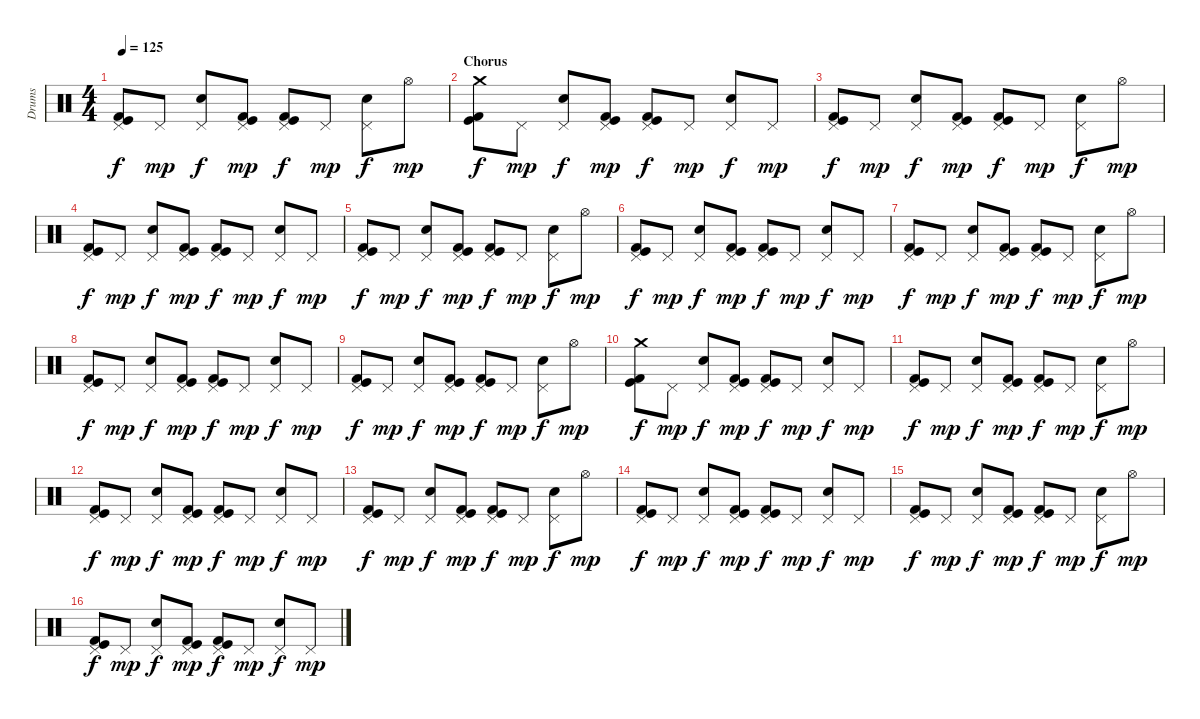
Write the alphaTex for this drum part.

\track ("Drums" "Drums") {instrument percussion}
\staff {score}
\articulation defaults
\ts (4 4)
\tempo 125
\clef neutral
\ks c
("Pedal Hi-Hat (hit)" "Kick (hit) 2" "Kick (hit)").8{dy f} "Pedal Hi-Hat (hit)".8{dy mp} ("Pedal Hi-Hat (hit)" "Electric Snare (hit)").8{dy f} ("Pedal Hi-Hat (hit)" "Kick (hit) 2" "Kick (hit)").8{dy mp} ("Pedal Hi-Hat (hit)" "Kick (hit) 2" "Kick (hit)").8{dy f} "Pedal Hi-Hat (hit)".8{dy mp} ("Pedal Hi-Hat (hit)" "Electric Snare (hit)").8{dy f} "Hi-Hat (open)".8{dy mp} |
\section ("" "Chorus")
("Crash medium (hit)" "Kick (hit) 2" "Kick (hit)").8{dy f} "Pedal Hi-Hat (hit)".8{dy mp} ("Pedal Hi-Hat (hit)" "Electric Snare (hit)").8{dy f} ("Pedal Hi-Hat (hit)" "Kick (hit) 2" "Kick (hit)").8{dy mp} ("Pedal Hi-Hat (hit)" "Kick (hit) 2" "Kick (hit)").8{dy f} "Pedal Hi-Hat (hit)".8{dy mp} ("Pedal Hi-Hat (hit)" "Electric Snare (hit)").8{dy f} "Pedal Hi-Hat (hit)".8{dy mp} |
("Pedal Hi-Hat (hit)" "Kick (hit) 2" "Kick (hit)").8{dy f} "Pedal Hi-Hat (hit)".8{dy mp} ("Pedal Hi-Hat (hit)" "Electric Snare (hit)").8{dy f} ("Pedal Hi-Hat (hit)" "Kick (hit) 2" "Kick (hit)").8{dy mp} ("Pedal Hi-Hat (hit)" "Kick (hit) 2" "Kick (hit)").8{dy f} "Pedal Hi-Hat (hit)".8{dy mp} ("Pedal Hi-Hat (hit)" "Electric Snare (hit)").8{dy f} "Hi-Hat (open)".8{dy mp} |
("Pedal Hi-Hat (hit)" "Kick (hit) 2" "Kick (hit)").8{dy f} "Pedal Hi-Hat (hit)".8{dy mp} ("Pedal Hi-Hat (hit)" "Electric Snare (hit)").8{dy f} ("Pedal Hi-Hat (hit)" "Kick (hit) 2" "Kick (hit)").8{dy mp} ("Pedal Hi-Hat (hit)" "Kick (hit) 2" "Kick (hit)").8{dy f} "Pedal Hi-Hat (hit)".8{dy mp} ("Pedal Hi-Hat (hit)" "Electric Snare (hit)").8{dy f} "Pedal Hi-Hat (hit)".8{dy mp} |
("Pedal Hi-Hat (hit)" "Kick (hit) 2" "Kick (hit)").8{dy f} "Pedal Hi-Hat (hit)".8{dy mp} ("Pedal Hi-Hat (hit)" "Electric Snare (hit)").8{dy f} ("Pedal Hi-Hat (hit)" "Kick (hit) 2" "Kick (hit)").8{dy mp} ("Pedal Hi-Hat (hit)" "Kick (hit) 2" "Kick (hit)").8{dy f} "Pedal Hi-Hat (hit)".8{dy mp} ("Pedal Hi-Hat (hit)" "Electric Snare (hit)").8{dy f} "Hi-Hat (open)".8{dy mp} |
("Pedal Hi-Hat (hit)" "Kick (hit) 2" "Kick (hit)").8{dy f} "Pedal Hi-Hat (hit)".8{dy mp} ("Pedal Hi-Hat (hit)" "Electric Snare (hit)").8{dy f} ("Pedal Hi-Hat (hit)" "Kick (hit) 2" "Kick (hit)").8{dy mp} ("Pedal Hi-Hat (hit)" "Kick (hit) 2" "Kick (hit)").8{dy f} "Pedal Hi-Hat (hit)".8{dy mp} ("Pedal Hi-Hat (hit)" "Electric Snare (hit)").8{dy f} "Pedal Hi-Hat (hit)".8{dy mp} |
("Pedal Hi-Hat (hit)" "Kick (hit) 2" "Kick (hit)").8{dy f} "Pedal Hi-Hat (hit)".8{dy mp} ("Pedal Hi-Hat (hit)" "Electric Snare (hit)").8{dy f} ("Pedal Hi-Hat (hit)" "Kick (hit) 2" "Kick (hit)").8{dy mp} ("Pedal Hi-Hat (hit)" "Kick (hit) 2" "Kick (hit)").8{dy f} "Pedal Hi-Hat (hit)".8{dy mp} ("Pedal Hi-Hat (hit)" "Electric Snare (hit)").8{dy f} "Hi-Hat (open)".8{dy mp} |
("Pedal Hi-Hat (hit)" "Kick (hit) 2" "Kick (hit)").8{dy f} "Pedal Hi-Hat (hit)".8{dy mp} ("Pedal Hi-Hat (hit)" "Electric Snare (hit)").8{dy f} ("Pedal Hi-Hat (hit)" "Kick (hit) 2" "Kick (hit)").8{dy mp} ("Pedal Hi-Hat (hit)" "Kick (hit) 2" "Kick (hit)").8{dy f} "Pedal Hi-Hat (hit)".8{dy mp} ("Pedal Hi-Hat (hit)" "Electric Snare (hit)").8{dy f} "Pedal Hi-Hat (hit)".8{dy mp} |
("Pedal Hi-Hat (hit)" "Kick (hit) 2" "Kick (hit)").8{dy f} "Pedal Hi-Hat (hit)".8{dy mp} ("Pedal Hi-Hat (hit)" "Electric Snare (hit)").8{dy f} ("Pedal Hi-Hat (hit)" "Kick (hit) 2" "Kick (hit)").8{dy mp} ("Pedal Hi-Hat (hit)" "Kick (hit) 2" "Kick (hit)").8{dy f} "Pedal Hi-Hat (hit)".8{dy mp} ("Pedal Hi-Hat (hit)" "Electric Snare (hit)").8{dy f} "Hi-Hat (open)".8{dy mp} |
("Crash medium (hit)" "Kick (hit) 2" "Kick (hit)").8{dy f} "Pedal Hi-Hat (hit)".8{dy mp} ("Pedal Hi-Hat (hit)" "Electric Snare (hit)").8{dy f} ("Pedal Hi-Hat (hit)" "Kick (hit) 2" "Kick (hit)").8{dy mp} ("Pedal Hi-Hat (hit)" "Kick (hit) 2" "Kick (hit)").8{dy f} "Pedal Hi-Hat (hit)".8{dy mp} ("Pedal Hi-Hat (hit)" "Electric Snare (hit)").8{dy f} "Pedal Hi-Hat (hit)".8{dy mp} |
("Pedal Hi-Hat (hit)" "Kick (hit) 2" "Kick (hit)").8{dy f} "Pedal Hi-Hat (hit)".8{dy mp} ("Pedal Hi-Hat (hit)" "Electric Snare (hit)").8{dy f} ("Pedal Hi-Hat (hit)" "Kick (hit) 2" "Kick (hit)").8{dy mp} ("Pedal Hi-Hat (hit)" "Kick (hit) 2" "Kick (hit)").8{dy f} "Pedal Hi-Hat (hit)".8{dy mp} ("Pedal Hi-Hat (hit)" "Electric Snare (hit)").8{dy f} "Hi-Hat (open)".8{dy mp} |
("Pedal Hi-Hat (hit)" "Kick (hit) 2" "Kick (hit)").8{dy f} "Pedal Hi-Hat (hit)".8{dy mp} ("Pedal Hi-Hat (hit)" "Electric Snare (hit)").8{dy f} ("Pedal Hi-Hat (hit)" "Kick (hit) 2" "Kick (hit)").8{dy mp} ("Pedal Hi-Hat (hit)" "Kick (hit) 2" "Kick (hit)").8{dy f} "Pedal Hi-Hat (hit)".8{dy mp} ("Pedal Hi-Hat (hit)" "Electric Snare (hit)").8{dy f} "Pedal Hi-Hat (hit)".8{dy mp} |
("Pedal Hi-Hat (hit)" "Kick (hit) 2" "Kick (hit)").8{dy f} "Pedal Hi-Hat (hit)".8{dy mp} ("Pedal Hi-Hat (hit)" "Electric Snare (hit)").8{dy f} ("Pedal Hi-Hat (hit)" "Kick (hit) 2" "Kick (hit)").8{dy mp} ("Pedal Hi-Hat (hit)" "Kick (hit) 2" "Kick (hit)").8{dy f} "Pedal Hi-Hat (hit)".8{dy mp} ("Pedal Hi-Hat (hit)" "Electric Snare (hit)").8{dy f} "Hi-Hat (open)".8{dy mp} |
("Pedal Hi-Hat (hit)" "Kick (hit) 2" "Kick (hit)").8{dy f} "Pedal Hi-Hat (hit)".8{dy mp} ("Pedal Hi-Hat (hit)" "Electric Snare (hit)").8{dy f} ("Pedal Hi-Hat (hit)" "Kick (hit) 2" "Kick (hit)").8{dy mp} ("Pedal Hi-Hat (hit)" "Kick (hit) 2" "Kick (hit)").8{dy f} "Pedal Hi-Hat (hit)".8{dy mp} ("Pedal Hi-Hat (hit)" "Electric Snare (hit)").8{dy f} "Pedal Hi-Hat (hit)".8{dy mp} |
("Pedal Hi-Hat (hit)" "Kick (hit) 2" "Kick (hit)").8{dy f} "Pedal Hi-Hat (hit)".8{dy mp} ("Pedal Hi-Hat (hit)" "Electric Snare (hit)").8{dy f} ("Pedal Hi-Hat (hit)" "Kick (hit) 2" "Kick (hit)").8{dy mp} ("Pedal Hi-Hat (hit)" "Kick (hit) 2" "Kick (hit)").8{dy f} "Pedal Hi-Hat (hit)".8{dy mp} ("Pedal Hi-Hat (hit)" "Electric Snare (hit)").8{dy f} "Hi-Hat (open)".8{dy mp} |
("Pedal Hi-Hat (hit)" "Kick (hit) 2" "Kick (hit)").8{dy f} "Pedal Hi-Hat (hit)".8{dy mp} ("Pedal Hi-Hat (hit)" "Electric Snare (hit)").8{dy f} ("Pedal Hi-Hat (hit)" "Kick (hit) 2" "Kick (hit)").8{dy mp} ("Pedal Hi-Hat (hit)" "Kick (hit) 2" "Kick (hit)").8{dy f} "Pedal Hi-Hat (hit)".8{dy mp} ("Pedal Hi-Hat (hit)" "Electric Snare (hit)").8{dy f} "Pedal Hi-Hat (hit)".8{dy mp}
